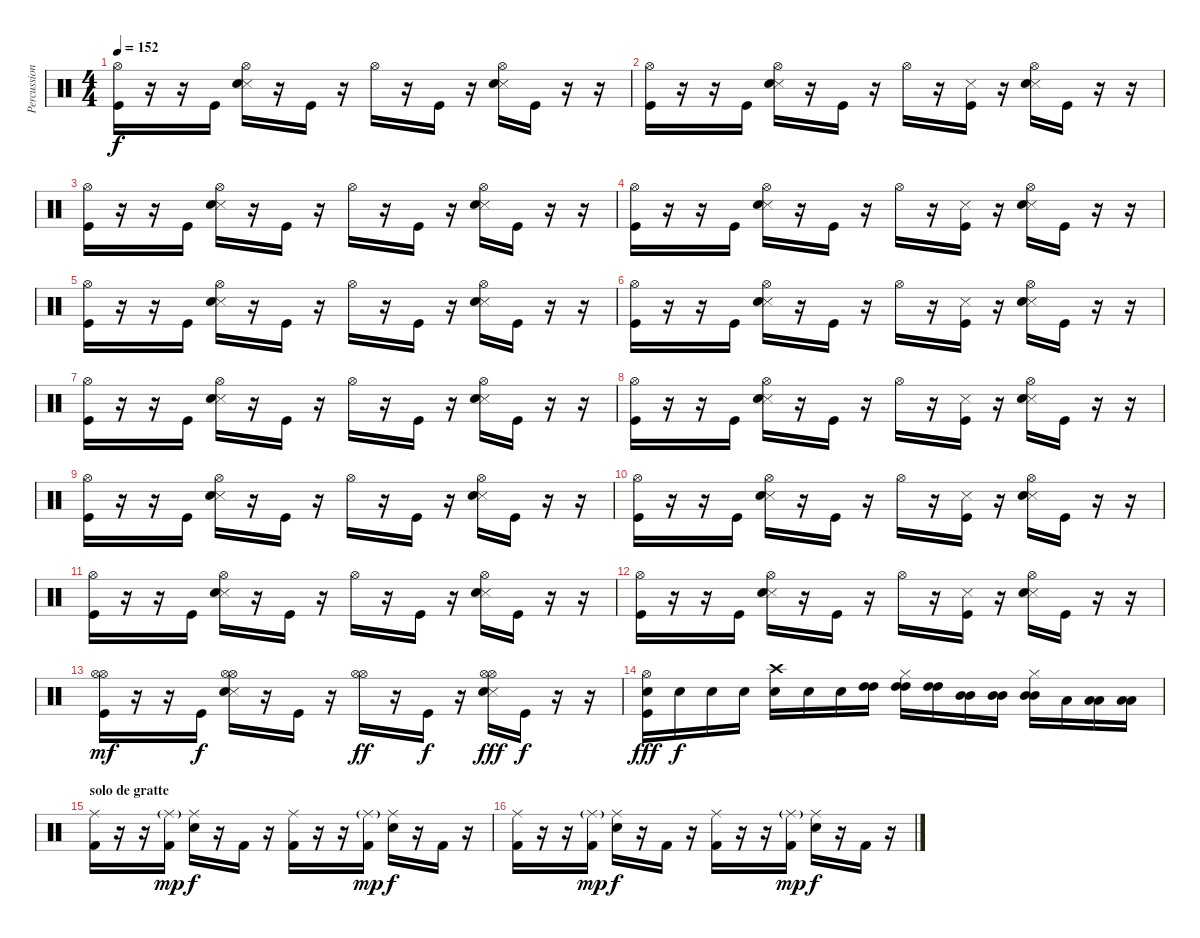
\track ("Percussions" "Percussion") {instrument percussion}
\staff {score}
\articulation defaults
\ts (4 4)
\tempo 152
\clef neutral
\ks c
("Hi-Hat (open)" "Kick (hit)").16{dy f} r.16 r.16 "Kick (hit)".16 ("Hi-Hat (open)" "Snare (side stick) 3" "Snare (hit) 2").16 r.16 "Kick (hit)".16 r.16 "Hi-Hat (open)".16 r.16 "Kick (hit)".16 r.16 ("Hi-Hat (open)" "Snare (side stick) 3" "Snare (hit) 2").16 "Kick (hit)".16 r.16 r.16 |
("Hi-Hat (open)" "Kick (hit)").16 r.16 r.16 "Kick (hit)".16 ("Hi-Hat (open)" "Snare (side stick) 3" "Snare (hit) 2").16 r.16 "Kick (hit)".16 r.16 "Hi-Hat (open)".16 r.16 ("Snare (side stick) 3" "Kick (hit)").16 r.16 ("Hi-Hat (open)" "Snare (side stick) 3" "Snare (hit) 2").16 "Kick (hit)".16 r.16 r.16 |
("Hi-Hat (open)" "Kick (hit)").16 r.16 r.16 "Kick (hit)".16 ("Hi-Hat (open)" "Snare (side stick) 3" "Snare (hit) 2").16 r.16 "Kick (hit)".16 r.16 "Hi-Hat (open)".16 r.16 "Kick (hit)".16 r.16 ("Hi-Hat (open)" "Snare (side stick) 3" "Snare (hit) 2").16 "Kick (hit)".16 r.16 r.16 |
("Hi-Hat (open)" "Kick (hit)").16 r.16 r.16 "Kick (hit)".16 ("Hi-Hat (open)" "Snare (side stick) 3" "Snare (hit) 2").16 r.16 "Kick (hit)".16 r.16 "Hi-Hat (open)".16 r.16 ("Snare (side stick) 3" "Kick (hit)").16 r.16 ("Hi-Hat (open)" "Snare (side stick) 3" "Snare (hit) 2").16 "Kick (hit)".16 r.16 r.16 |
("Hi-Hat (open)" "Kick (hit)").16 r.16 r.16 "Kick (hit)".16 ("Hi-Hat (open)" "Snare (side stick) 3" "Snare (hit) 2").16 r.16 "Kick (hit)".16 r.16 "Hi-Hat (open)".16 r.16 "Kick (hit)".16 r.16 ("Hi-Hat (open)" "Snare (side stick) 3" "Snare (hit) 2").16 "Kick (hit)".16 r.16 r.16 |
("Hi-Hat (open)" "Kick (hit)").16 r.16 r.16 "Kick (hit)".16 ("Hi-Hat (open)" "Snare (side stick) 3" "Snare (hit) 2").16 r.16 "Kick (hit)".16 r.16 "Hi-Hat (open)".16 r.16 ("Snare (side stick) 3" "Kick (hit)").16 r.16 ("Hi-Hat (open)" "Snare (side stick) 3" "Snare (hit) 2").16 "Kick (hit)".16 r.16 r.16 |
("Hi-Hat (open)" "Kick (hit)").16 r.16 r.16 "Kick (hit)".16 ("Hi-Hat (open)" "Snare (side stick) 3" "Snare (hit) 2").16 r.16 "Kick (hit)".16 r.16 "Hi-Hat (open)".16 r.16 "Kick (hit)".16 r.16 ("Hi-Hat (open)" "Snare (side stick) 3" "Snare (hit) 2").16 "Kick (hit)".16 r.16 r.16 |
("Hi-Hat (open)" "Kick (hit)").16 r.16 r.16 "Kick (hit)".16 ("Hi-Hat (open)" "Snare (side stick) 3" "Snare (hit) 2").16 r.16 "Kick (hit)".16 r.16 "Hi-Hat (open)".16 r.16 ("Snare (side stick) 3" "Kick (hit)").16 r.16 ("Hi-Hat (open)" "Snare (side stick) 3" "Snare (hit) 2").16 "Kick (hit)".16 r.16 r.16 |
("Hi-Hat (open)" "Kick (hit)").16 r.16 r.16 "Kick (hit)".16 ("Hi-Hat (open)" "Snare (side stick) 3" "Snare (hit) 2").16 r.16 "Kick (hit)".16 r.16 "Hi-Hat (open)".16 r.16 "Kick (hit)".16 r.16 ("Hi-Hat (open)" "Snare (side stick) 3" "Snare (hit) 2").16 "Kick (hit)".16 r.16 r.16 |
("Hi-Hat (open)" "Kick (hit)").16 r.16 r.16 "Kick (hit)".16 ("Hi-Hat (open)" "Snare (side stick) 3" "Snare (hit) 2").16 r.16 "Kick (hit)".16 r.16 "Hi-Hat (open)".16 r.16 ("Snare (side stick) 3" "Kick (hit)").16 r.16 ("Hi-Hat (open)" "Snare (side stick) 3" "Snare (hit) 2").16 "Kick (hit)".16 r.16 r.16 |
("Hi-Hat (open)" "Kick (hit)").16 r.16 r.16 "Kick (hit)".16 ("Hi-Hat (open)" "Snare (side stick) 3" "Snare (hit) 2").16 r.16 "Kick (hit)".16 r.16 "Hi-Hat (open)".16 r.16 "Kick (hit)".16 r.16 ("Hi-Hat (open)" "Snare (side stick) 3" "Snare (hit) 2").16 "Kick (hit)".16 r.16 r.16 |
("Hi-Hat (open)" "Kick (hit)").16 r.16 r.16 "Kick (hit)".16 ("Hi-Hat (open)" "Snare (side stick) 3" "Snare (hit) 2").16 r.16 "Kick (hit)".16 r.16 "Hi-Hat (open)".16 r.16 ("Snare (side stick) 3" "Kick (hit)").16 r.16 ("Hi-Hat (open)" "Snare (side stick) 3" "Snare (hit) 2").16 "Kick (hit)".16 r.16 r.16 |
("Hi-Hat (open)" "Hi-Hat (open)" "Kick (hit)").16{dy mf} r.16 r.16 "Kick (hit)".16{dy f} ("Hi-Hat (open)" "Hi-Hat (open)" "Snare (side stick) 3" "Snare (hit) 2").16 r.16 "Kick (hit)".16 r.16 ("Hi-Hat (open)" "Hi-Hat (open)").16{dy ff} r.16 "Kick (hit)".16{dy f} r.16 ("Hi-Hat (open)" "Hi-Hat (open)" "Snare (side stick) 3" "Snare (hit) 2").16{dy fff} "Kick (hit)".16{dy f} r.16 r.16 |
("Hi-Hat (open)" "Snare (hit) 2" "Kick (hit)").16{dy fff} "Snare (hit) 2".16{dy f} "Snare (hit) 2".16 "Snare (hit) 2".16 ("Crash high (hit)" "Snare (hit) 2").16 "Snare (hit) 2".16 "Snare (hit) 2".16 ("High Tom (hit)" "High Tom (hit)").16 ("Hi-Hat (closed)" "High Tom (hit)" "High Tom (hit)").16 ("High Tom (hit)" "High Tom (hit)").16 ("Mid Tom (hit)" "Mid Tom (hit)").16 ("Mid Tom (hit)" "Mid Tom (hit)").16 ("Hi-Hat (closed)" "Mid Tom (hit)" "Mid Tom (hit)").16 "Low Tom (hit)".16 ("Low Tom (hit)" "Low Tom (hit)").16 ("Low Tom (hit)" "Low Tom (hit)").16 |
\section ("" "solo de gratte")
("Ride (middle)" "Kick (hit) 2").16 r.16 r.16 ("Ride (middle)"{g} "Kick (hit) 2").16{dy mp} ("Ride (middle)" "Snare (hit) 2").16{dy f} r.16 "Kick (hit) 2".16 r.16 ("Ride (middle)" "Kick (hit) 2").16 r.16 r.16 ("Ride (middle)"{g} "Kick (hit) 2").16{dy mp} ("Ride (middle)" "Snare (hit) 2").16{dy f} r.16 "Kick (hit) 2".16 r.16 |
("Ride (middle)" "Kick (hit) 2").16 r.16 r.16 ("Ride (middle)"{g} "Kick (hit) 2").16{dy mp} ("Ride (middle)" "Snare (hit) 2").16{dy f} r.16 "Kick (hit) 2".16 r.16 ("Ride (middle)" "Kick (hit) 2").16 r.16 r.16 ("Ride (middle)"{g} "Kick (hit) 2").16{dy mp} ("Ride (middle)" "Snare (hit) 2").16{dy f} r.16 "Kick (hit) 2".16 r.16
